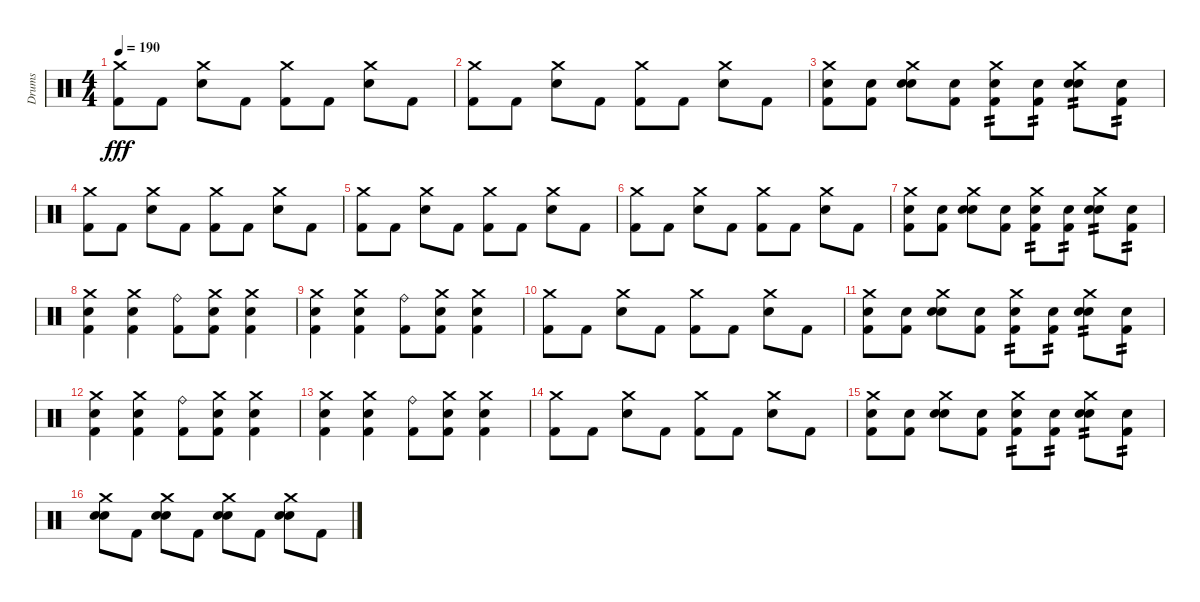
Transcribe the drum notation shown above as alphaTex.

\track ("Drums" "Drums") {instrument percussion}
\staff {score}
\articulation defaults
\ts (4 4)
\tempo 190
\clef neutral
\ks c
("Crash medium (hit)" "Kick (hit) 2").8{dy fff} "Kick (hit) 2".8 ("Crash medium (hit)" "Snare (hit) 2").8 "Kick (hit) 2".8 ("Crash medium (hit)" "Kick (hit) 2").8 "Kick (hit) 2".8 ("Crash medium (hit)" "Snare (hit) 2").8 "Kick (hit) 2".8 |
("Crash medium (hit)" "Kick (hit) 2").8 "Kick (hit) 2".8 ("Crash medium (hit)" "Snare (hit) 2").8 "Kick (hit) 2".8 ("Crash medium (hit)" "Kick (hit) 2").8 "Kick (hit) 2".8 ("Crash medium (hit)" "Snare (hit) 2").8 "Kick (hit) 2".8 |
("Crash medium (hit)" "Electric Snare (hit)" "Kick (hit) 2").8 ("Electric Snare (hit)" "Kick (hit) 2").8 ("Crash medium (hit)" "Electric Snare (hit)" "Snare (hit) 2").8 ("Electric Snare (hit)" "Kick (hit) 2").8 ("Crash medium (hit)" "Electric Snare (hit)" "Kick (hit) 2").8{tp 2} ("Electric Snare (hit)" "Kick (hit) 2").8{tp 2} ("Crash medium (hit)" "Electric Snare (hit)" "Snare (hit) 2").8{tp 2} ("Electric Snare (hit)" "Kick (hit) 2").8{tp 2} |
("Crash medium (hit)" "Kick (hit) 2").8 "Kick (hit) 2".8 ("Crash medium (hit)" "Snare (hit) 2").8 "Kick (hit) 2".8 ("Crash medium (hit)" "Kick (hit) 2").8 "Kick (hit) 2".8 ("Crash medium (hit)" "Snare (hit) 2").8 "Kick (hit) 2".8 |
("Crash medium (hit)" "Kick (hit) 2").8 "Kick (hit) 2".8 ("Crash medium (hit)" "Snare (hit) 2").8 "Kick (hit) 2".8 ("Crash medium (hit)" "Kick (hit) 2").8 "Kick (hit) 2".8 ("Crash medium (hit)" "Snare (hit) 2").8 "Kick (hit) 2".8 |
("Crash medium (hit)" "Kick (hit) 2").8 "Kick (hit) 2".8 ("Crash medium (hit)" "Snare (hit) 2").8 "Kick (hit) 2".8 ("Crash medium (hit)" "Kick (hit) 2").8 "Kick (hit) 2".8 ("Crash medium (hit)" "Snare (hit) 2").8 "Kick (hit) 2".8 |
("Crash medium (hit)" "Electric Snare (hit)" "Kick (hit) 2").8 ("Electric Snare (hit)" "Kick (hit) 2").8 ("Crash medium (hit)" "Electric Snare (hit)" "Snare (hit) 2").8 ("Electric Snare (hit)" "Kick (hit) 2").8 ("Crash medium (hit)" "Electric Snare (hit)" "Kick (hit) 2").8{tp 2} ("Electric Snare (hit)" "Kick (hit) 2").8{tp 2} ("Crash medium (hit)" "Electric Snare (hit)" "Snare (hit) 2").8{tp 2} ("Electric Snare (hit)" "Kick (hit) 2").8{tp 2} |
("Crash medium (hit)" "Snare (hit) 2" "Kick (hit) 2").4 ("Crash medium (hit)" "Snare (hit) 2" "Kick (hit) 2").4 ("Ride (bell)" "Kick (hit) 2").8 ("Crash medium (hit)" "Snare (hit) 2" "Kick (hit) 2").8 ("Crash medium (hit)" "Snare (hit) 2" "Kick (hit) 2").4 |
("Crash medium (hit)" "Snare (hit) 2" "Kick (hit) 2").4 ("Crash medium (hit)" "Snare (hit) 2" "Kick (hit) 2").4 ("Ride (bell)" "Kick (hit) 2").8 ("Crash medium (hit)" "Snare (hit) 2" "Kick (hit) 2").8 ("Crash medium (hit)" "Snare (hit) 2" "Kick (hit) 2").4 |
("Crash medium (hit)" "Kick (hit) 2").8 "Kick (hit) 2".8 ("Crash medium (hit)" "Snare (hit) 2").8 "Kick (hit) 2".8 ("Crash medium (hit)" "Kick (hit) 2").8 "Kick (hit) 2".8 ("Crash medium (hit)" "Snare (hit) 2").8 "Kick (hit) 2".8 |
("Crash medium (hit)" "Electric Snare (hit)" "Kick (hit) 2").8 ("Electric Snare (hit)" "Kick (hit) 2").8 ("Crash medium (hit)" "Electric Snare (hit)" "Snare (hit) 2").8 ("Electric Snare (hit)" "Kick (hit) 2").8 ("Crash medium (hit)" "Electric Snare (hit)" "Kick (hit) 2").8{tp 2} ("Electric Snare (hit)" "Kick (hit) 2").8{tp 2} ("Crash medium (hit)" "Electric Snare (hit)" "Snare (hit) 2").8{tp 2} ("Electric Snare (hit)" "Kick (hit) 2").8{tp 2} |
("Crash medium (hit)" "Snare (hit) 2" "Kick (hit) 2").4 ("Crash medium (hit)" "Snare (hit) 2" "Kick (hit) 2").4 ("Ride (bell)" "Kick (hit) 2").8 ("Crash medium (hit)" "Snare (hit) 2" "Kick (hit) 2").8 ("Crash medium (hit)" "Snare (hit) 2" "Kick (hit) 2").4 |
("Crash medium (hit)" "Snare (hit) 2" "Kick (hit) 2").4 ("Crash medium (hit)" "Snare (hit) 2" "Kick (hit) 2").4 ("Ride (bell)" "Kick (hit) 2").8 ("Crash medium (hit)" "Snare (hit) 2" "Kick (hit) 2").8 ("Crash medium (hit)" "Snare (hit) 2" "Kick (hit) 2").4 |
("Crash medium (hit)" "Kick (hit) 2").8 "Kick (hit) 2".8 ("Crash medium (hit)" "Snare (hit) 2").8 "Kick (hit) 2".8 ("Crash medium (hit)" "Kick (hit) 2").8 "Kick (hit) 2".8 ("Crash medium (hit)" "Snare (hit) 2").8 "Kick (hit) 2".8 |
("Crash medium (hit)" "Electric Snare (hit)" "Kick (hit) 2").8 ("Electric Snare (hit)" "Kick (hit) 2").8 ("Crash medium (hit)" "Electric Snare (hit)" "Snare (hit) 2").8 ("Electric Snare (hit)" "Kick (hit) 2").8 ("Crash medium (hit)" "Electric Snare (hit)" "Kick (hit) 2").8{tp 2} ("Electric Snare (hit)" "Kick (hit) 2").8{tp 2} ("Crash medium (hit)" "Electric Snare (hit)" "Snare (hit) 2").8{tp 2} ("Electric Snare (hit)" "Kick (hit) 2").8{tp 2} |
("Crash medium (hit)" "Snare (hit) 2" "Snare (hit) 2").8 "Kick (hit) 2".8 ("Crash medium (hit)" "Snare (hit) 2" "Snare (hit) 2").8 "Kick (hit) 2".8 ("Crash medium (hit)" "Snare (hit) 2" "Snare (hit) 2").8 "Kick (hit) 2".8 ("Crash medium (hit)" "Snare (hit) 2" "Snare (hit) 2").8 "Kick (hit) 2".8
